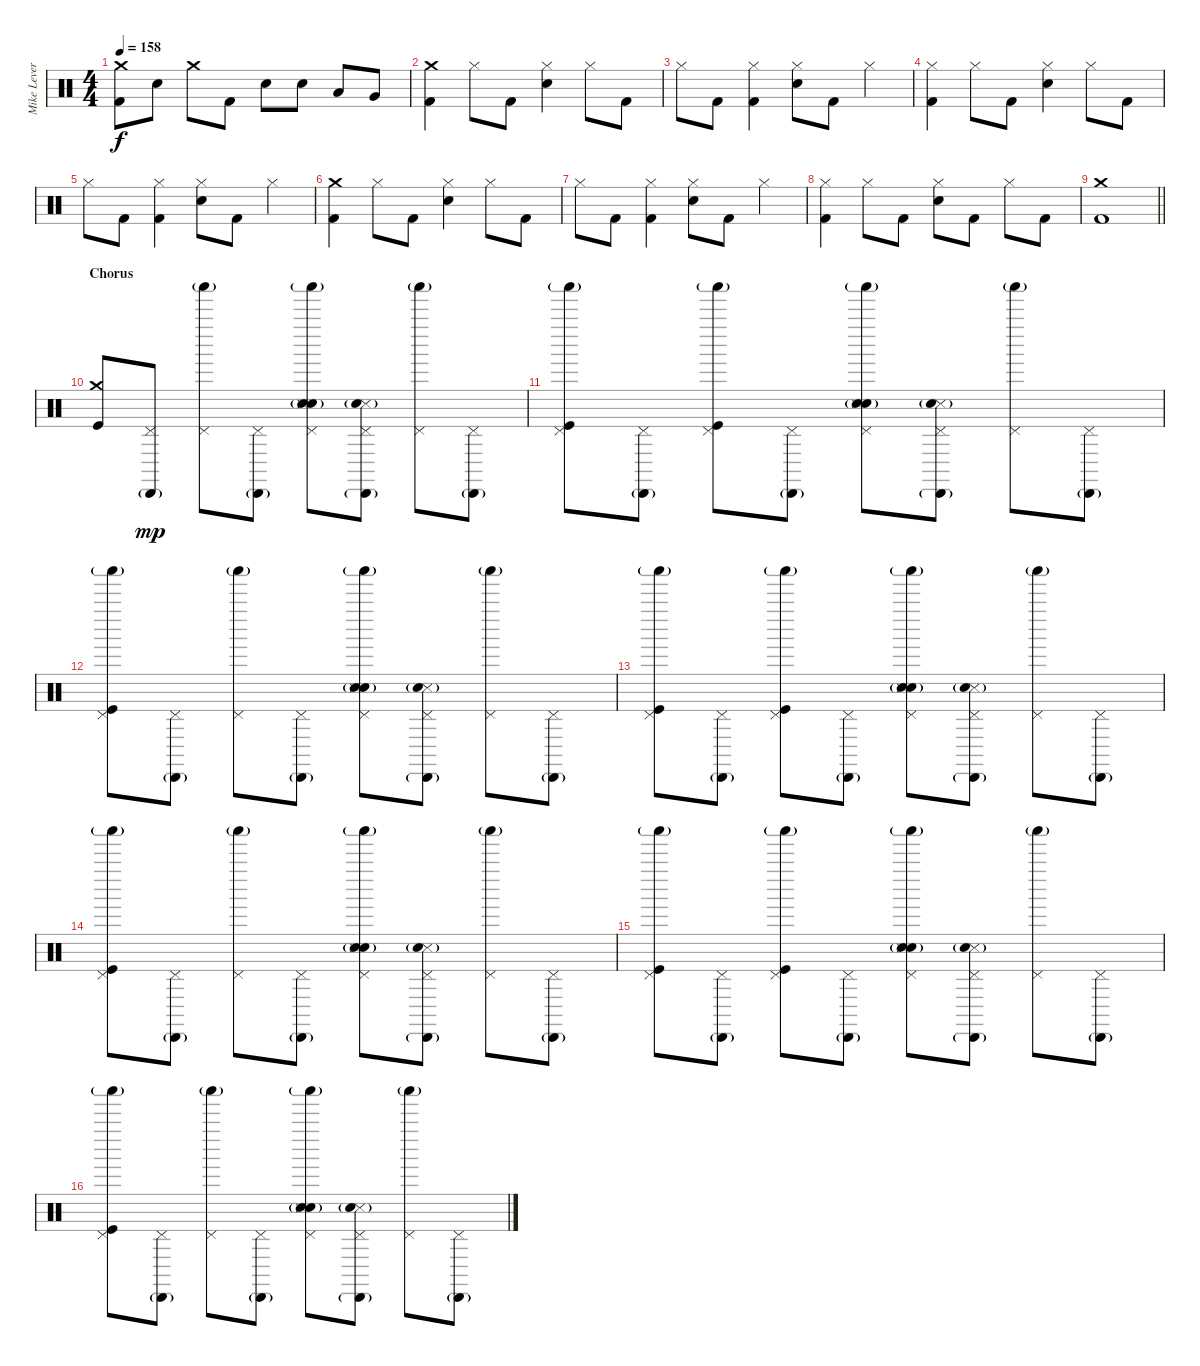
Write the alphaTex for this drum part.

\track ("Mike Leverence - Drums" "Mike Lever") {instrument percussion}
\staff {score}
\articulation defaults
\ts (4 4)
\tempo 158
\clef neutral
\ks c
("Crash medium (hit)" "Kick (hit) 2").8{dy f} "Electric Snare (hit)".8 "Crash medium (hit)".8 "Kick (hit) 2".8 "Electric Snare (hit)".8 "Electric Snare (hit)".8 "Low Tom (hit)".8 "Very Low Tom (hit)".8 |
("Crash medium (hit)" "Kick (hit) 2").4 "Hi-Hat (closed)".8 "Kick (hit) 2".8 ("Hi-Hat (closed)" "Electric Snare (hit)").4 "Hi-Hat (closed)".8 "Kick (hit) 2".8 |
"Hi-Hat (closed)".8 "Kick (hit) 2".8 ("Hi-Hat (closed)" "Kick (hit) 2").4 ("Hi-Hat (closed)" "Electric Snare (hit)").8 "Kick (hit) 2".8 "Hi-Hat (closed)".4 |
("Hi-Hat (closed)" "Kick (hit) 2").4 "Hi-Hat (closed)".8 "Kick (hit) 2".8 ("Hi-Hat (closed)" "Electric Snare (hit)").4 "Hi-Hat (closed)".8 "Kick (hit) 2".8 |
"Hi-Hat (closed)".8 "Kick (hit) 2".8 ("Hi-Hat (closed)" "Kick (hit) 2").4 ("Hi-Hat (closed)" "Electric Snare (hit)").8 "Kick (hit) 2".8 "Hi-Hat (closed)".4 |
("Crash medium (hit)" "Kick (hit) 2").4 "Hi-Hat (closed)".8 "Kick (hit) 2".8 ("Hi-Hat (closed)" "Electric Snare (hit)").4 "Hi-Hat (closed)".8 "Kick (hit) 2".8 |
"Hi-Hat (closed)".8 "Kick (hit) 2".8 ("Hi-Hat (closed)" "Kick (hit) 2").4 ("Hi-Hat (closed)" "Electric Snare (hit)").8 "Kick (hit) 2".8 "Hi-Hat (closed)".4 |
("Hi-Hat (closed)" "Kick (hit) 2").4 "Hi-Hat (closed)".8 "Kick (hit) 2".8 ("Hi-Hat (closed)" "Electric Snare (hit)").8 "Kick (hit) 2".8 "Hi-Hat (closed)".8 "Kick (hit) 2".8 |
\barLineRight lightlight
("Crash medium (hit)" "Kick (hit) 2").1 |
\section ("" "Chorus")
("Crash medium (hit)" "Kick (hit)").8{volume 10 balance 4} ("Cabasa (hit)"{g} "Pedal Hi-Hat (hit)").8{dy mp} ("Shaker (hit)"{g} "Pedal Hi-Hat (hit)").8 ("Cabasa (hit)"{g} "Pedal Hi-Hat (hit)").8 ("Shaker (hit)"{g} "Pedal Hi-Hat (hit)" "Hand Clap (hit)" "Snare (side stick) 3" "Electric Snare (hit)"{g}).8 ("Cabasa (hit)"{g} "Pedal Hi-Hat (hit)" "Snare (side stick) 3"{g} "Electric Snare (hit)"{g}).8 ("Shaker (hit)"{g} "Pedal Hi-Hat (hit)").8 ("Cabasa (hit)"{g} "Pedal Hi-Hat (hit)").8 |
("Shaker (hit)"{g} "Pedal Hi-Hat (hit)" "Kick (hit)").8 ("Cabasa (hit)"{g} "Pedal Hi-Hat (hit)").8 ("Shaker (hit)"{g} "Pedal Hi-Hat (hit)" "Kick (hit)").8 ("Cabasa (hit)"{g} "Pedal Hi-Hat (hit)").8 ("Shaker (hit)"{g} "Pedal Hi-Hat (hit)" "Hand Clap (hit)" "Snare (side stick) 3" "Electric Snare (hit)"{g}).8 ("Cabasa (hit)"{g} "Pedal Hi-Hat (hit)" "Snare (side stick) 3"{g} "Electric Snare (hit)"{g}).8 ("Shaker (hit)"{g} "Pedal Hi-Hat (hit)").8 ("Cabasa (hit)"{g} "Pedal Hi-Hat (hit)").8 |
("Shaker (hit)"{g} "Pedal Hi-Hat (hit)" "Kick (hit)").8 ("Cabasa (hit)"{g} "Pedal Hi-Hat (hit)").8 ("Shaker (hit)"{g} "Pedal Hi-Hat (hit)").8 ("Cabasa (hit)"{g} "Pedal Hi-Hat (hit)").8 ("Shaker (hit)"{g} "Pedal Hi-Hat (hit)" "Hand Clap (hit)" "Snare (side stick) 3" "Electric Snare (hit)"{g}).8 ("Cabasa (hit)"{g} "Pedal Hi-Hat (hit)" "Snare (side stick) 3"{g} "Electric Snare (hit)"{g}).8 ("Shaker (hit)"{g} "Pedal Hi-Hat (hit)").8 ("Cabasa (hit)"{g} "Pedal Hi-Hat (hit)").8 |
("Shaker (hit)"{g} "Pedal Hi-Hat (hit)" "Kick (hit)").8 ("Cabasa (hit)"{g} "Pedal Hi-Hat (hit)").8 ("Shaker (hit)"{g} "Pedal Hi-Hat (hit)" "Kick (hit)").8 ("Cabasa (hit)"{g} "Pedal Hi-Hat (hit)").8 ("Shaker (hit)"{g} "Pedal Hi-Hat (hit)" "Hand Clap (hit)" "Snare (side stick) 3" "Electric Snare (hit)"{g}).8 ("Cabasa (hit)"{g} "Pedal Hi-Hat (hit)" "Snare (side stick) 3"{g} "Electric Snare (hit)"{g}).8 ("Shaker (hit)"{g} "Pedal Hi-Hat (hit)").8 ("Cabasa (hit)"{g} "Pedal Hi-Hat (hit)").8 |
("Shaker (hit)"{g} "Pedal Hi-Hat (hit)" "Kick (hit)").8 ("Cabasa (hit)"{g} "Pedal Hi-Hat (hit)").8 ("Shaker (hit)"{g} "Pedal Hi-Hat (hit)").8 ("Cabasa (hit)"{g} "Pedal Hi-Hat (hit)").8 ("Shaker (hit)"{g} "Pedal Hi-Hat (hit)" "Hand Clap (hit)" "Snare (side stick) 3" "Electric Snare (hit)"{g}).8 ("Cabasa (hit)"{g} "Pedal Hi-Hat (hit)" "Snare (side stick) 3"{g} "Electric Snare (hit)"{g}).8 ("Shaker (hit)"{g} "Pedal Hi-Hat (hit)").8 ("Cabasa (hit)"{g} "Pedal Hi-Hat (hit)").8 |
("Shaker (hit)"{g} "Pedal Hi-Hat (hit)" "Kick (hit)").8 ("Cabasa (hit)"{g} "Pedal Hi-Hat (hit)").8 ("Shaker (hit)"{g} "Pedal Hi-Hat (hit)" "Kick (hit)").8 ("Cabasa (hit)"{g} "Pedal Hi-Hat (hit)").8 ("Shaker (hit)"{g} "Pedal Hi-Hat (hit)" "Hand Clap (hit)" "Snare (side stick) 3" "Electric Snare (hit)"{g}).8 ("Cabasa (hit)"{g} "Pedal Hi-Hat (hit)" "Snare (side stick) 3"{g} "Electric Snare (hit)"{g}).8 ("Shaker (hit)"{g} "Pedal Hi-Hat (hit)").8 ("Cabasa (hit)"{g} "Pedal Hi-Hat (hit)").8 |
("Shaker (hit)"{g} "Pedal Hi-Hat (hit)" "Kick (hit)").8 ("Cabasa (hit)"{g} "Pedal Hi-Hat (hit)").8 ("Shaker (hit)"{g} "Pedal Hi-Hat (hit)").8 ("Cabasa (hit)"{g} "Pedal Hi-Hat (hit)").8 ("Shaker (hit)"{g} "Pedal Hi-Hat (hit)" "Hand Clap (hit)" "Snare (side stick) 3" "Electric Snare (hit)"{g}).8 ("Cabasa (hit)"{g} "Pedal Hi-Hat (hit)" "Snare (side stick) 3"{g} "Electric Snare (hit)"{g}).8 ("Shaker (hit)"{g} "Pedal Hi-Hat (hit)").8 ("Cabasa (hit)"{g} "Pedal Hi-Hat (hit)").8
